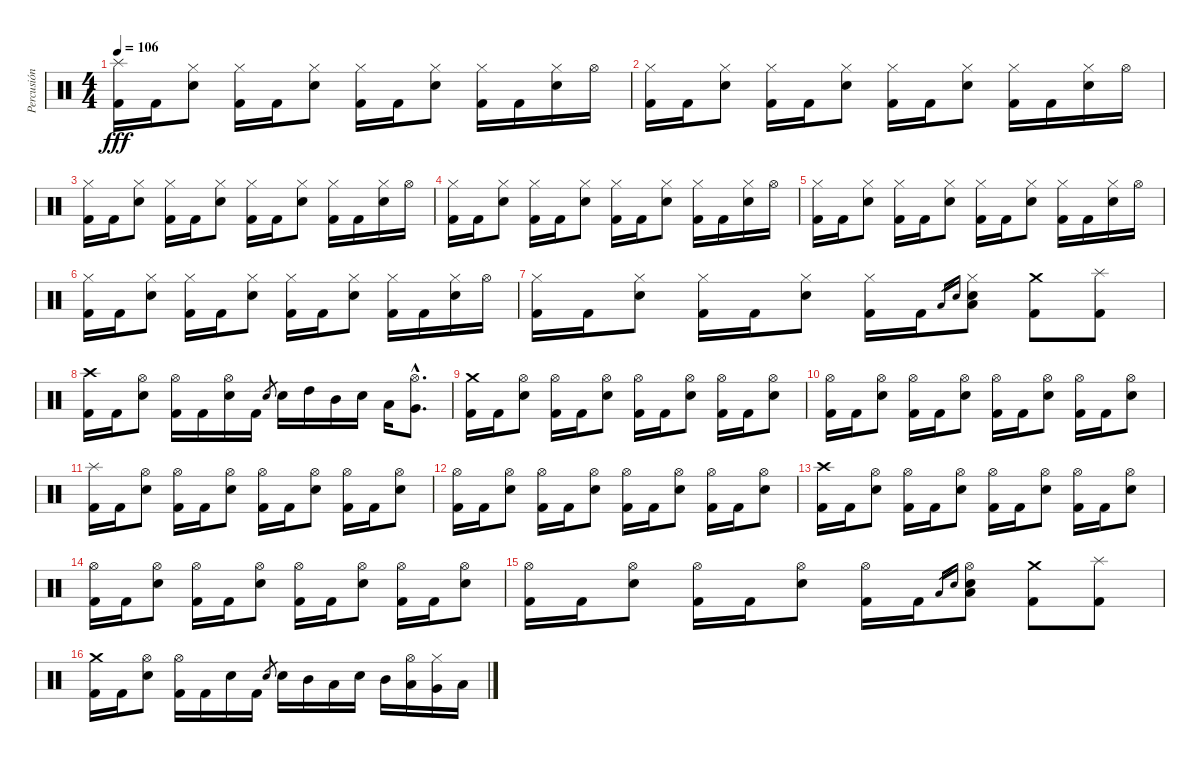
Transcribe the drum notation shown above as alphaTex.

\track ("Percusión" "Percusión") {instrument percussion}
\staff {score}
\articulation defaults
\ts (4 4)
\tempo 106
\clef neutral
\ks c
("Splash (hit)" "Kick (hit) 2").16{dy fff} "Kick (hit) 2".16 ("Hi-Hat (closed)" "Snare (hit) 2").8 ("Hi-Hat (closed)" "Kick (hit) 2").16 "Kick (hit) 2".16 ("Hi-Hat (closed)" "Snare (hit) 2").8 ("Hi-Hat (closed)" "Kick (hit) 2").16 "Kick (hit) 2".16 ("Hi-Hat (closed)" "Snare (hit) 2").8 ("Hi-Hat (closed)" "Kick (hit) 2").16 "Kick (hit) 2".16 ("Hi-Hat (closed)" "Snare (hit) 2").16 "Hi-Hat (open)".16 |
("Hi-Hat (closed)" "Kick (hit) 2").16 "Kick (hit) 2".16 ("Hi-Hat (closed)" "Snare (hit) 2").8 ("Hi-Hat (closed)" "Kick (hit) 2").16 "Kick (hit) 2".16 ("Hi-Hat (closed)" "Snare (hit) 2").8 ("Hi-Hat (closed)" "Kick (hit) 2").16 "Kick (hit) 2".16 ("Hi-Hat (closed)" "Snare (hit) 2").8 ("Hi-Hat (closed)" "Kick (hit) 2").16 "Kick (hit) 2".16 ("Hi-Hat (closed)" "Snare (hit) 2").16 "Hi-Hat (open)".16 |
("Hi-Hat (closed)" "Kick (hit) 2").16 "Kick (hit) 2".16 ("Hi-Hat (closed)" "Snare (hit) 2").8 ("Hi-Hat (closed)" "Kick (hit) 2").16 "Kick (hit) 2".16 ("Hi-Hat (closed)" "Snare (hit) 2").8 ("Hi-Hat (closed)" "Kick (hit) 2").16 "Kick (hit) 2".16 ("Hi-Hat (closed)" "Snare (hit) 2").8 ("Hi-Hat (closed)" "Kick (hit) 2").16 "Kick (hit) 2".16 ("Hi-Hat (closed)" "Snare (hit) 2").16 "Hi-Hat (open)".16 |
("Hi-Hat (closed)" "Kick (hit) 2").16 "Kick (hit) 2".16 ("Hi-Hat (closed)" "Snare (hit) 2").8 ("Hi-Hat (closed)" "Kick (hit) 2").16 "Kick (hit) 2".16 ("Hi-Hat (closed)" "Snare (hit) 2").8 ("Hi-Hat (closed)" "Kick (hit) 2").16 "Kick (hit) 2".16 ("Hi-Hat (closed)" "Snare (hit) 2").8 ("Hi-Hat (closed)" "Kick (hit) 2").16 "Kick (hit) 2".16 ("Hi-Hat (closed)" "Snare (hit) 2").16 "Hi-Hat (open)".16 |
("Hi-Hat (closed)" "Kick (hit) 2").16 "Kick (hit) 2".16 ("Hi-Hat (closed)" "Snare (hit) 2").8 ("Hi-Hat (closed)" "Kick (hit) 2").16 "Kick (hit) 2".16 ("Hi-Hat (closed)" "Snare (hit) 2").8 ("Hi-Hat (closed)" "Kick (hit) 2").16 "Kick (hit) 2".16 ("Hi-Hat (closed)" "Snare (hit) 2").8 ("Hi-Hat (closed)" "Kick (hit) 2").16 "Kick (hit) 2".16 ("Hi-Hat (closed)" "Snare (hit) 2").16 "Hi-Hat (open)".16 |
("Hi-Hat (closed)" "Kick (hit) 2").16 "Kick (hit) 2".16 ("Hi-Hat (closed)" "Snare (hit) 2").8 ("Hi-Hat (closed)" "Kick (hit) 2").16 "Kick (hit) 2".16 ("Hi-Hat (closed)" "Snare (hit) 2").8 ("Hi-Hat (closed)" "Kick (hit) 2").16 "Kick (hit) 2".16 ("Hi-Hat (closed)" "Snare (hit) 2").8 ("Hi-Hat (closed)" "Kick (hit) 2").16 "Kick (hit) 2".16 ("Hi-Hat (closed)" "Snare (hit) 2").16 "Hi-Hat (open)".16 |
("Hi-Hat (closed)" "Kick (hit) 2").16 "Kick (hit) 2".16 ("Hi-Hat (closed)" "Snare (hit) 2").8 ("Hi-Hat (closed)" "Kick (hit) 2").16 "Kick (hit) 2".16 ("Hi-Hat (closed)" "Snare (hit) 2").8 ("Hi-Hat (closed)" "Kick (hit) 2").16 "Kick (hit) 2".16 "Low Tom (hit)".16{gr} "Snare (hit) 2".16{gr} ("Hi-Hat (closed)" "Low Tom (hit)" "Snare (hit) 2").8 ("Crash medium (hit)" "Kick (hit) 2").8 ("Splash (hit)" "Kick (hit) 2").8 |
("Crash high (hit)" "Kick (hit) 2").16 "Kick (hit) 2".16 ("Hi-Hat (open)" "Snare (hit) 2").8 ("Hi-Hat (open)" "Kick (hit) 2").16 "Kick (hit) 2".16 ("Hi-Hat (open)" "Snare (hit) 2").16 "Kick (hit) 2".16 "Snare (hit) 2".8{gr} "Snare (hit) 2".16 "High Tom (hit)".16 "Mid Tom (hit)".16 "Snare (hit) 2".16 "Low Tom (hit)".16 ("Hi-Hat (open)"{hac} "Very Low Tom (hit)"{hac}).8{d} |
("Crash medium (hit)" "Kick (hit) 2").16 "Kick (hit) 2".16 ("Hi-Hat (open)" "Snare (hit) 2").8 ("Hi-Hat (open)" "Kick (hit) 2").16 "Kick (hit) 2".16 ("Hi-Hat (open)" "Snare (hit) 2").8 ("Hi-Hat (open)" "Kick (hit) 2").16 "Kick (hit) 2".16 ("Hi-Hat (open)" "Snare (hit) 2").8 ("Hi-Hat (open)" "Kick (hit) 2").16 "Kick (hit) 2".16 ("Hi-Hat (open)" "Snare (hit) 2").8 |
("Hi-Hat (open)" "Kick (hit) 2").16 "Kick (hit) 2".16 ("Hi-Hat (open)" "Snare (hit) 2").8 ("Hi-Hat (open)" "Kick (hit) 2").16 "Kick (hit) 2".16 ("Hi-Hat (open)" "Snare (hit) 2").8 ("Hi-Hat (open)" "Kick (hit) 2").16 "Kick (hit) 2".16 ("Hi-Hat (open)" "Snare (hit) 2").8 ("Hi-Hat (open)" "Kick (hit) 2").16 "Kick (hit) 2".16 ("Hi-Hat (open)" "Snare (hit) 2").8 |
("Splash (hit)" "Kick (hit) 2").16 "Kick (hit) 2".16 ("Hi-Hat (open)" "Snare (hit) 2").8 ("Hi-Hat (open)" "Kick (hit) 2").16 "Kick (hit) 2".16 ("Hi-Hat (open)" "Snare (hit) 2").8 ("Hi-Hat (open)" "Kick (hit) 2").16 "Kick (hit) 2".16 ("Hi-Hat (open)" "Snare (hit) 2").8 ("Hi-Hat (open)" "Kick (hit) 2").16 "Kick (hit) 2".16 ("Hi-Hat (open)" "Snare (hit) 2").8 |
("Hi-Hat (open)" "Kick (hit) 2").16 "Kick (hit) 2".16 ("Hi-Hat (open)" "Snare (hit) 2").8 ("Hi-Hat (open)" "Kick (hit) 2").16 "Kick (hit) 2".16 ("Hi-Hat (open)" "Snare (hit) 2").8 ("Hi-Hat (open)" "Kick (hit) 2").16 "Kick (hit) 2".16 ("Hi-Hat (open)" "Snare (hit) 2").8 ("Hi-Hat (open)" "Kick (hit) 2").16 "Kick (hit) 2".16 ("Hi-Hat (open)" "Snare (hit) 2").8 |
("Crash high (hit)" "Kick (hit) 2").16 "Kick (hit) 2".16 ("Hi-Hat (open)" "Snare (hit) 2").8 ("Hi-Hat (open)" "Kick (hit) 2").16 "Kick (hit) 2".16 ("Hi-Hat (open)" "Snare (hit) 2").8 ("Hi-Hat (open)" "Kick (hit) 2").16 "Kick (hit) 2".16 ("Hi-Hat (open)" "Snare (hit) 2").8 ("Hi-Hat (open)" "Kick (hit) 2").16 "Kick (hit) 2".16 ("Hi-Hat (open)" "Snare (hit) 2").8 |
("Hi-Hat (open)" "Kick (hit) 2").16 "Kick (hit) 2".16 ("Hi-Hat (open)" "Snare (hit) 2").8 ("Hi-Hat (open)" "Kick (hit) 2").16 "Kick (hit) 2".16 ("Hi-Hat (open)" "Snare (hit) 2").8 ("Hi-Hat (open)" "Kick (hit) 2").16 "Kick (hit) 2".16 ("Hi-Hat (open)" "Snare (hit) 2").8 ("Hi-Hat (open)" "Kick (hit) 2").16 "Kick (hit) 2".16 ("Hi-Hat (open)" "Snare (hit) 2").8 |
("Hi-Hat (open)" "Kick (hit) 2").16 "Kick (hit) 2".16 ("Hi-Hat (open)" "Snare (hit) 2").8 ("Hi-Hat (open)" "Kick (hit) 2").16 "Kick (hit) 2".16 ("Hi-Hat (open)" "Snare (hit) 2").8 ("Hi-Hat (open)" "Kick (hit) 2").16 "Kick (hit) 2".16 "Low Tom (hit)".16{gr} "Snare (hit) 2".16{gr} ("Hi-Hat (open)" "Low Tom (hit)" "Snare (hit) 2").8 ("Crash medium (hit)" "Kick (hit) 2").8 ("Splash (hit)" "Kick (hit) 2").8 |
("Crash medium (hit)" "Kick (hit) 2").16 "Kick (hit) 2".16 ("Hi-Hat (open)" "Snare (hit) 2").8 ("Hi-Hat (open)" "Kick (hit) 2").16 "Kick (hit) 2".16 "Snare (hit) 2".16 "Kick (hit) 2".16 "Snare (hit) 2".8{gr} "Snare (hit) 2".16 "Mid Tom (hit)".16 "Low Tom (hit)".16 "Snare (hit) 2".16 "Mid Tom (hit)".16 ("Hi-Hat (open)" "Low Tom (hit)").16 ("Hi-Hat (closed)" "Very Low Tom (hit)").16 "Low Floor Tom (hit)".16
